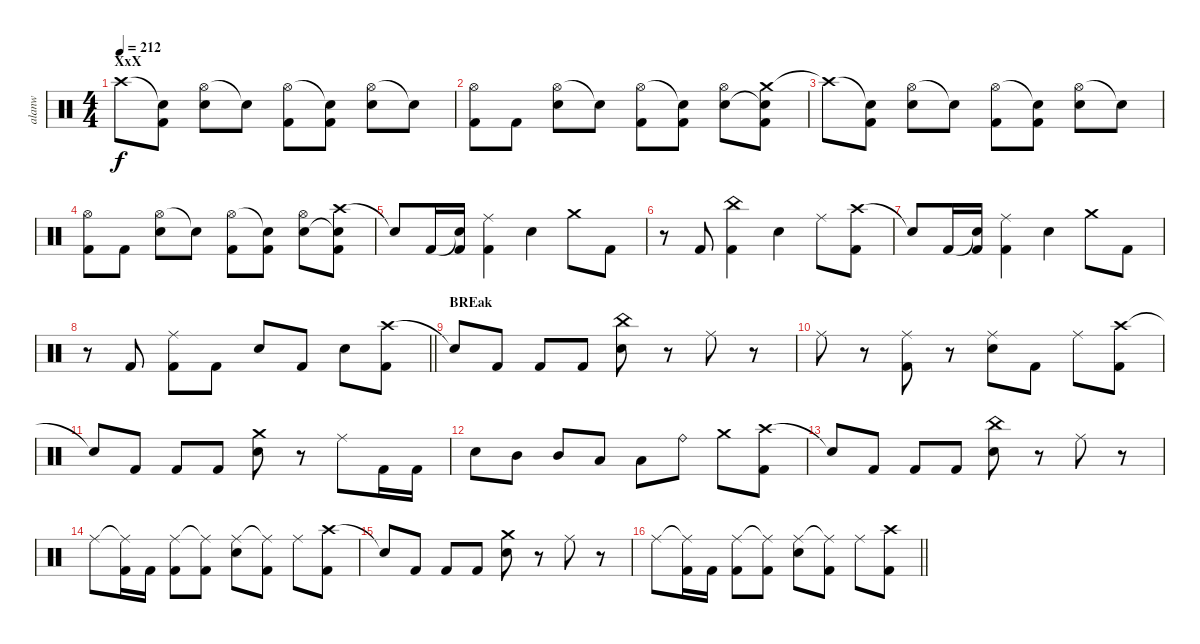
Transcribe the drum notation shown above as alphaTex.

\track ("alanw" "alanw") {instrument percussion}
\staff {score}
\articulation defaults
\ts (4 4)
\section ("" "XxX")
\tempo 212
\clef neutral
\ks c "Crash high (hit)"{t}.8{dy f}
("Snare (hit)"{t} "Kick (hit) 2").8 ("Hi-Hat (open)" "Electric Snare (hit)").8 "Snare (hit)"{t}.8 ("Hi-Hat (open)" "Kick (hit) 2").8 ("Snare (hit)"{t} "Kick (hit) 2").8 ("Hi-Hat (open)" "Electric Snare (hit)").8 "Snare (hit)"{t}.8 |
("Hi-Hat (open)" "Kick (hit) 2").8 "Kick (hit) 2".8 ("Hi-Hat (open)" "Electric Snare (hit)").8 "Snare (hit)"{t}.8 ("Hi-Hat (open)" "Kick (hit) 2").8 ("Snare (hit)"{t} "Kick (hit) 2").8 ("Hi-Hat (open)" "Electric Snare (hit)").8 ("Crash medium (hit)" "Snare (hit)"{t} "Kick (hit) 2").8 |
"Crash high (hit)"{t}.8 ("Snare (hit)"{t} "Kick (hit) 2").8 ("Hi-Hat (open)" "Electric Snare (hit)").8 "Snare (hit)"{t}.8 ("Hi-Hat (open)" "Kick (hit) 2").8 ("Snare (hit)"{t} "Kick (hit) 2").8 ("Hi-Hat (open)" "Electric Snare (hit)").8 "Snare (hit)"{t}.8 |
("Hi-Hat (open)" "Kick (hit) 2").8 "Kick (hit) 2".8 ("Hi-Hat (open)" "Electric Snare (hit)").8 "Snare (hit)"{t}.8 ("Hi-Hat (open)" "Kick (hit) 2").8 ("Snare (hit)"{t} "Kick (hit) 2").8 ("Hi-Hat (open)" "Electric Snare (hit)").8 ("Crash high (hit)" "Snare (hit)"{t} "Kick (hit) 2").8 |
"Snare (hit)"{t}.8 "Kick (hit) 2".16 ("Snare (hit)"{t} "Kick (hit) 2").16 ("Ride (middle)" "Kick (hit) 2").4 "Electric Snare (hit)".4 "Crash medium (hit)".8 "Kick (hit) 2".8 |
r.8 "Kick (hit) 2".8 ("China (hit)" "Kick (hit) 2").4 "Electric Snare (hit)".4 "Ride (middle)".8 ("Crash high (hit)" "Kick (hit) 2").8 |
"Snare (hit)"{t}.8 "Kick (hit) 2".16 ("Snare (hit)"{t} "Kick (hit) 2").16 ("Ride (middle)" "Kick (hit) 2").4 "Electric Snare (hit)".4 "Crash medium (hit)".8 "Kick (hit) 2".8 |
\barLineRight lightlight
r.8 "Kick (hit) 2".8 ("Ride (middle)" "Kick (hit) 2").8 "Kick (hit) 2".8 "Electric Snare (hit)".8 "Kick (hit) 2".8 "Electric Snare (hit)".8 ("Crash high (hit)" "Kick (hit) 2").8 |
\section ("" "BREak")
"Snare (hit)"{t}.8 "Kick (hit) 2".8 "Kick (hit) 2".8 "Kick (hit) 2".8 ("China (hit)" "Electric Snare (hit)").8 r.8 "Ride (middle)".8 r.8 |
"Ride (middle)".8 r.8 ("Ride (middle)" "Kick (hit) 2").8 r.8 ("Ride (middle)" "Electric Snare (hit)").8 "Kick (hit) 2".8 "Ride (middle)".8 ("Crash high (hit)" "Kick (hit) 2").8 |
"Snare (hit)"{t}.8 "Kick (hit) 2".8 "Kick (hit) 2".8 "Kick (hit) 2".8 ("Crash medium (hit)" "Electric Snare (hit)").8 r.8 "Ride (middle)".8 "Kick (hit) 2".16 "Kick (hit) 2".16 |
"Electric Snare (hit)".8 "Mid Tom (hit)".8 "Mid Tom (hit)".8 "Low Tom (hit)".8 "Low Tom (hit)".8 "Ride (bell)".8 "Crash medium (hit)".8 ("Crash high (hit)" "Kick (hit) 2").8 |
"Snare (hit)"{t}.8 "Kick (hit) 2".8 "Kick (hit) 2".8 "Kick (hit) 2".8 ("China (hit)" "Electric Snare (hit)").8 r.8 "Ride (middle)".8 r.8 |
"Ride (middle)".8 ("Ride (middle)"{t} "Kick (hit) 2").16 "Kick (hit) 2".16 ("Ride (middle)" "Kick (hit) 2").8 ("Ride (middle)"{t} "Kick (hit) 2").8 ("Ride (middle)" "Electric Snare (hit)").8 ("Ride (middle)"{t} "Kick (hit) 2").8 "Ride (middle)".8 ("Crash high (hit)" "Kick (hit) 2").8 |
"Snare (hit)"{t}.8 "Kick (hit) 2".8 "Kick (hit) 2".8 "Kick (hit) 2".8 ("Crash medium (hit)" "Electric Snare (hit)").8 r.8 "Ride (middle)".8 r.8 |
\barLineRight lightlight "Ride (middle)".8
("Ride (middle)"{t} "Kick (hit) 2").16 "Kick (hit) 2".16 ("Ride (middle)" "Kick (hit) 2").8 ("Ride (middle)"{t} "Kick (hit) 2").8 ("Ride (middle)" "Electric Snare (hit)").8 ("Ride (middle)"{t} "Kick (hit) 2").8 "Ride (middle)".8 ("Crash high (hit)" "Kick (hit) 2").8
